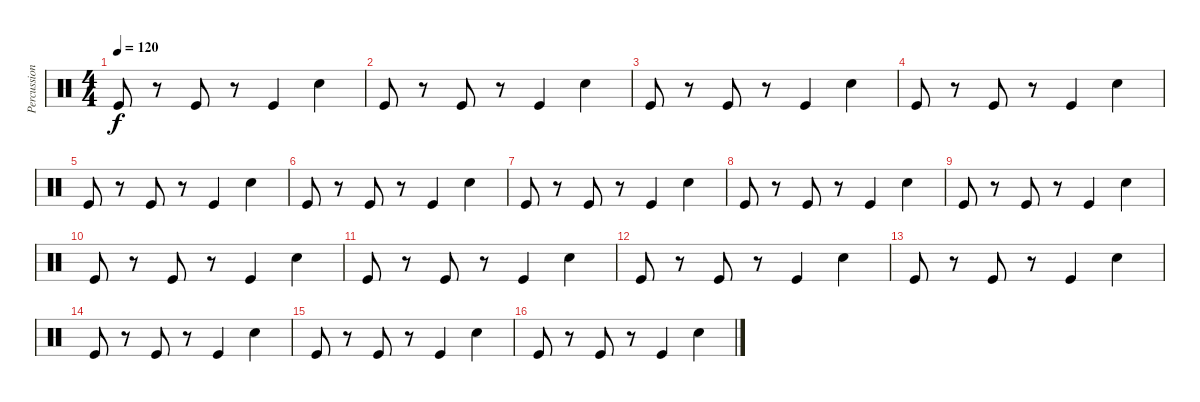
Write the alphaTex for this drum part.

\track ("Percussion" "Percussion") {instrument percussion}
\staff {score}
\articulation defaults
\ts (4 4)
\tempo 120
\clef neutral
\ks c "Kick (hit)".8{dy f}
r.8 "Kick (hit)".8 r.8 "Kick (hit)".4 "Snare (hit) 2".4 |
"Kick (hit)".8 r.8 "Kick (hit)".8 r.8 "Kick (hit)".4 "Snare (hit) 2".4 |
"Kick (hit)".8 r.8 "Kick (hit)".8 r.8 "Kick (hit)".4 "Snare (hit) 2".4 |
"Kick (hit)".8 r.8 "Kick (hit)".8 r.8 "Kick (hit)".4 "Snare (hit) 2".4 |
"Kick (hit)".8 r.8 "Kick (hit)".8 r.8 "Kick (hit)".4 "Snare (hit) 2".4 |
"Kick (hit)".8 r.8 "Kick (hit)".8 r.8 "Kick (hit)".4 "Snare (hit) 2".4 |
"Kick (hit)".8 r.8 "Kick (hit)".8 r.8 "Kick (hit)".4 "Snare (hit) 2".4 |
"Kick (hit)".8 r.8 "Kick (hit)".8 r.8 "Kick (hit)".4 "Snare (hit) 2".4 |
"Kick (hit)".8 r.8 "Kick (hit)".8 r.8 "Kick (hit)".4 "Snare (hit) 2".4 |
"Kick (hit)".8 r.8 "Kick (hit)".8 r.8 "Kick (hit)".4 "Snare (hit) 2".4 |
"Kick (hit)".8 r.8 "Kick (hit)".8 r.8 "Kick (hit)".4 "Snare (hit) 2".4 |
"Kick (hit)".8 r.8 "Kick (hit)".8 r.8 "Kick (hit)".4 "Snare (hit) 2".4 |
"Kick (hit)".8 r.8 "Kick (hit)".8 r.8 "Kick (hit)".4 "Snare (hit) 2".4 |
"Kick (hit)".8 r.8 "Kick (hit)".8 r.8 "Kick (hit)".4 "Snare (hit) 2".4 |
"Kick (hit)".8 r.8 "Kick (hit)".8 r.8 "Kick (hit)".4 "Snare (hit) 2".4 |
"Kick (hit)".8 r.8 "Kick (hit)".8 r.8 "Kick (hit)".4 "Snare (hit) 2".4
